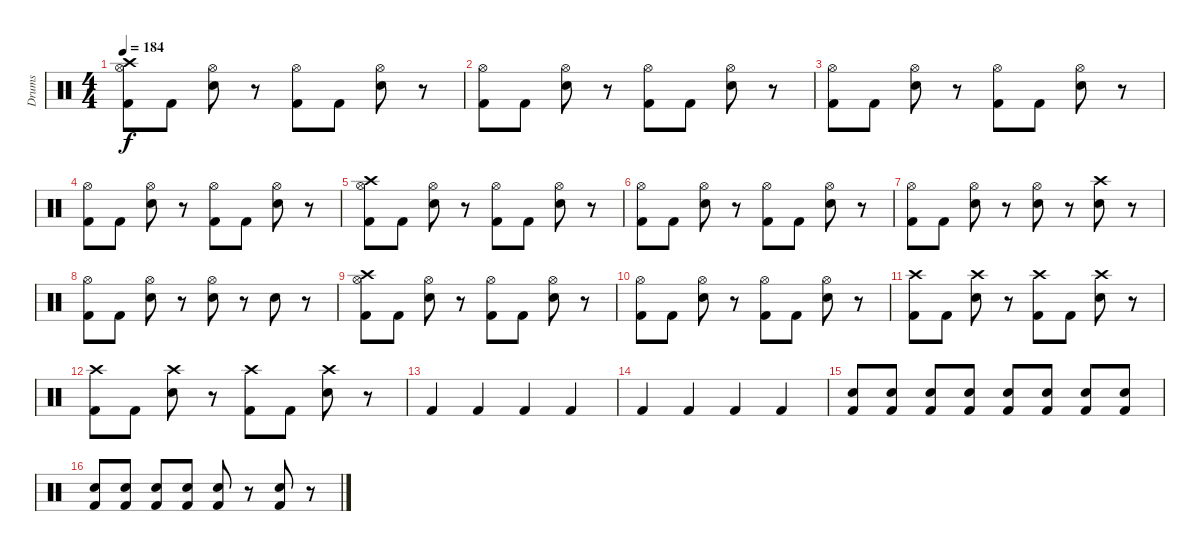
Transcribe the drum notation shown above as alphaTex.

\track ("Drums" "Drums") {instrument percussion}
\staff {score}
\articulation defaults
\ts (4 4)
\tempo 184
\clef neutral
\ks c
("Crash high (hit)" "Hi-Hat (open)" "Kick (hit) 2").8{dy f} "Kick (hit) 2".8 ("Hi-Hat (open)" "Snare (hit) 2").8 r.8 ("Hi-Hat (open)" "Kick (hit) 2").8 "Kick (hit) 2".8 ("Hi-Hat (open)" "Snare (hit) 2").8 r.8 |
("Hi-Hat (open)" "Kick (hit) 2").8 "Kick (hit) 2".8 ("Hi-Hat (open)" "Snare (hit) 2").8 r.8 ("Hi-Hat (open)" "Kick (hit) 2").8 "Kick (hit) 2".8 ("Hi-Hat (open)" "Snare (hit) 2").8 r.8 |
("Hi-Hat (open)" "Kick (hit) 2").8 "Kick (hit) 2".8 ("Hi-Hat (open)" "Snare (hit) 2").8 r.8 ("Hi-Hat (open)" "Kick (hit) 2").8 "Kick (hit) 2".8 ("Hi-Hat (open)" "Snare (hit) 2").8 r.8 |
("Hi-Hat (open)" "Kick (hit) 2").8 "Kick (hit) 2".8 ("Hi-Hat (open)" "Snare (hit) 2").8 r.8 ("Hi-Hat (open)" "Kick (hit) 2").8 "Kick (hit) 2".8 ("Hi-Hat (open)" "Snare (hit) 2").8 r.8 |
("Crash high (hit)" "Hi-Hat (open)" "Kick (hit) 2").8 "Kick (hit) 2".8 ("Hi-Hat (open)" "Snare (hit) 2").8 r.8 ("Hi-Hat (open)" "Kick (hit) 2").8 "Kick (hit) 2".8 ("Hi-Hat (open)" "Snare (hit) 2").8 r.8 |
("Hi-Hat (open)" "Kick (hit) 2").8 "Kick (hit) 2".8 ("Hi-Hat (open)" "Snare (hit) 2").8 r.8 ("Hi-Hat (open)" "Kick (hit) 2").8 "Kick (hit) 2".8 ("Hi-Hat (open)" "Snare (hit) 2").8 r.8 |
("Hi-Hat (open)" "Kick (hit) 2").8 "Kick (hit) 2".8 ("Hi-Hat (open)" "Snare (hit) 2").8 r.8 ("Hi-Hat (open)" "Snare (hit) 2").8 r.8 ("Crash high (hit)" "Snare (hit) 2").8 r.8 |
("Hi-Hat (open)" "Kick (hit) 2").8 "Kick (hit) 2".8 ("Hi-Hat (open)" "Snare (hit) 2").8 r.8 ("Hi-Hat (open)" "Snare (hit) 2").8 r.8 "Snare (hit) 2".8 r.8 |
("Crash high (hit)" "Hi-Hat (open)" "Kick (hit) 2").8 "Kick (hit) 2".8 ("Hi-Hat (open)" "Snare (hit) 2").8 r.8 ("Hi-Hat (open)" "Kick (hit) 2").8 "Kick (hit) 2".8 ("Hi-Hat (open)" "Snare (hit) 2").8 r.8 |
("Hi-Hat (open)" "Kick (hit) 2").8 "Kick (hit) 2".8 ("Hi-Hat (open)" "Snare (hit) 2").8 r.8 ("Hi-Hat (open)" "Kick (hit) 2").8 "Kick (hit) 2".8 ("Hi-Hat (open)" "Snare (hit) 2").8 r.8 |
("Crash high (hit)" "Kick (hit) 2").8 "Kick (hit) 2".8 ("Crash high (hit)" "Snare (hit) 2").8 r.8 ("Crash high (hit)" "Kick (hit) 2").8 "Kick (hit) 2".8 ("Crash high (hit)" "Snare (hit) 2").8 r.8 |
("Crash high (hit)" "Kick (hit) 2").8 "Kick (hit) 2".8 ("Crash high (hit)" "Snare (hit) 2").8 r.8 ("Crash high (hit)" "Kick (hit) 2").8 "Kick (hit) 2".8 ("Crash high (hit)" "Snare (hit) 2").8 r.8 |
"Kick (hit) 2".4 "Kick (hit) 2".4 "Kick (hit) 2".4 "Kick (hit) 2".4 |
"Kick (hit) 2".4 "Kick (hit) 2".4 "Kick (hit) 2".4 "Kick (hit) 2".4 |
("Snare (hit) 2" "Kick (hit) 2").8{volume 4} ("Snare (hit) 2" "Kick (hit) 2").8{volume 13} ("Snare (hit) 2" "Kick (hit) 2").8 ("Snare (hit) 2" "Kick (hit) 2").8 ("Snare (hit) 2" "Kick (hit) 2").8 ("Snare (hit) 2" "Kick (hit) 2").8 ("Snare (hit) 2" "Kick (hit) 2").8 ("Snare (hit) 2" "Kick (hit) 2").8 |
("Snare (hit) 2" "Kick (hit) 2").8 ("Snare (hit) 2" "Kick (hit) 2").8 ("Snare (hit) 2" "Kick (hit) 2").8 ("Snare (hit) 2" "Kick (hit) 2").8 ("Snare (hit) 2" "Kick (hit) 2").8 r.8 ("Snare (hit) 2" "Kick (hit) 2").8 r.8
